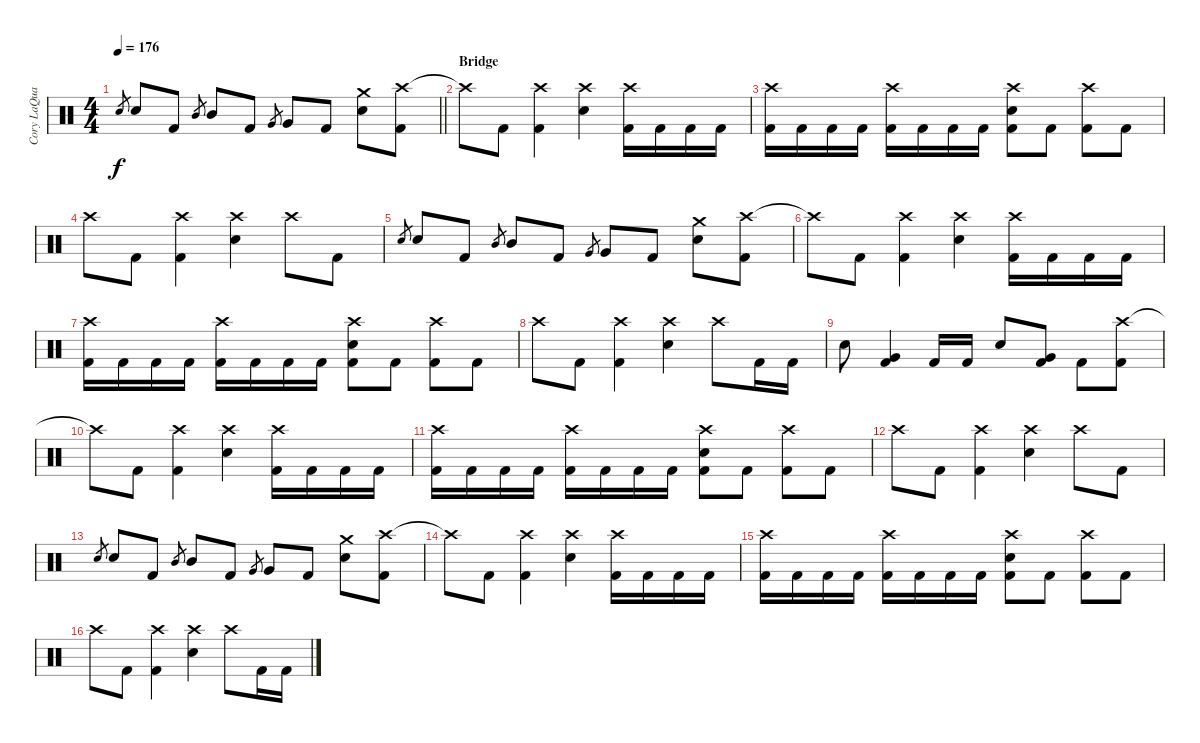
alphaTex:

\track ("Cory LaQuay" "Cory LaQua") {instrument percussion}
\staff {score}
\articulation defaults
\ts (4 4)
\tempo 176
\clef neutral
\barLineRight lightlight
\ks c "Snare (hit) 2".8{gr dy f} "Snare (hit) 2".8 "Kick (hit) 2".8 "Mid Tom (hit)".8{gr} "Mid Tom (hit)".8 "Kick (hit) 2".8 "Very Low Tom (hit)".8{gr} "Very Low Tom (hit)".8 "Kick (hit) 2".8
("Crash medium (hit)" "Snare (hit) 2").8 ("Crash high (hit)" "Kick (hit) 2").8 |
\section ("" "Bridge")
"Crash high (hit)"{t}.8 "Kick (hit) 2".8 ("Crash high (hit)" "Kick (hit) 2").4 ("Crash high (hit)" "Snare (hit) 2").4 ("Crash high (hit)" "Kick (hit) 2").16 "Kick (hit) 2".16 "Kick (hit) 2".16 "Kick (hit) 2".16 |
("Crash high (hit)" "Kick (hit) 2").16 "Kick (hit) 2".16 "Kick (hit) 2".16 "Kick (hit) 2".16 ("Crash high (hit)" "Kick (hit) 2").16 "Kick (hit) 2".16 "Kick (hit) 2".16 "Kick (hit) 2".16 ("Crash high (hit)" "Snare (hit) 2" "Kick (hit) 2").8 "Kick (hit) 2".8 ("Crash high (hit)" "Kick (hit) 2").8 "Kick (hit) 2".8 |
"Crash high (hit)".8 "Kick (hit) 2".8 ("Crash high (hit)" "Kick (hit) 2").4 ("Crash high (hit)" "Snare (hit) 2").4 "Crash high (hit)".8 "Kick (hit) 2".8 |
"Snare (hit) 2".8{gr} "Snare (hit) 2".8 "Kick (hit) 2".8 "Mid Tom (hit)".8{gr} "Mid Tom (hit)".8 "Kick (hit) 2".8 "Very Low Tom (hit)".8{gr} "Very Low Tom (hit)".8 "Kick (hit) 2".8 ("Crash medium (hit)" "Snare (hit) 2").8 ("Crash high (hit)" "Kick (hit) 2").8 |
"Crash high (hit)"{t}.8 "Kick (hit) 2".8 ("Crash high (hit)" "Kick (hit) 2").4 ("Crash high (hit)" "Snare (hit) 2").4 ("Crash high (hit)" "Kick (hit) 2").16 "Kick (hit) 2".16 "Kick (hit) 2".16 "Kick (hit) 2".16 |
("Crash high (hit)" "Kick (hit) 2").16 "Kick (hit) 2".16 "Kick (hit) 2".16 "Kick (hit) 2".16 ("Crash high (hit)" "Kick (hit) 2").16 "Kick (hit) 2".16 "Kick (hit) 2".16 "Kick (hit) 2".16 ("Crash high (hit)" "Snare (hit) 2" "Kick (hit) 2").8 "Kick (hit) 2".8 ("Crash high (hit)" "Kick (hit) 2").8 "Kick (hit) 2".8 |
"Crash high (hit)".8 "Kick (hit) 2".8 ("Crash high (hit)" "Kick (hit) 2").4 ("Crash high (hit)" "Snare (hit) 2").4 "Crash high (hit)".8 "Kick (hit) 2".16 "Kick (hit) 2".16 |
"Snare (hit) 2".8 ("Very Low Tom (hit)" "Kick (hit) 2").4 "Kick (hit) 2".16 "Kick (hit) 2".16 "Snare (hit) 2".8 ("Very Low Tom (hit)" "Kick (hit) 2").8 "Kick (hit) 2".8 ("Crash high (hit)" "Kick (hit) 2").8 |
"Crash high (hit)"{t}.8 "Kick (hit) 2".8 ("Crash high (hit)" "Kick (hit) 2").4 ("Crash high (hit)" "Snare (hit) 2").4 ("Crash high (hit)" "Kick (hit) 2").16 "Kick (hit) 2".16 "Kick (hit) 2".16 "Kick (hit) 2".16 |
("Crash high (hit)" "Kick (hit) 2").16 "Kick (hit) 2".16 "Kick (hit) 2".16 "Kick (hit) 2".16 ("Crash high (hit)" "Kick (hit) 2").16 "Kick (hit) 2".16 "Kick (hit) 2".16 "Kick (hit) 2".16 ("Crash high (hit)" "Snare (hit) 2" "Kick (hit) 2").8 "Kick (hit) 2".8 ("Crash high (hit)" "Kick (hit) 2").8 "Kick (hit) 2".8 |
"Crash high (hit)".8 "Kick (hit) 2".8 ("Crash high (hit)" "Kick (hit) 2").4 ("Crash high (hit)" "Snare (hit) 2").4 "Crash high (hit)".8 "Kick (hit) 2".8 |
"Snare (hit) 2".8{gr} "Snare (hit) 2".8 "Kick (hit) 2".8 "Mid Tom (hit)".8{gr} "Mid Tom (hit)".8 "Kick (hit) 2".8 "Very Low Tom (hit)".8{gr} "Very Low Tom (hit)".8 "Kick (hit) 2".8 ("Crash medium (hit)" "Snare (hit) 2").8 ("Crash high (hit)" "Kick (hit) 2").8 |
"Crash high (hit)"{t}.8 "Kick (hit) 2".8 ("Crash high (hit)" "Kick (hit) 2").4 ("Crash high (hit)" "Snare (hit) 2").4 ("Crash high (hit)" "Kick (hit) 2").16 "Kick (hit) 2".16 "Kick (hit) 2".16 "Kick (hit) 2".16 |
("Crash high (hit)" "Kick (hit) 2").16 "Kick (hit) 2".16 "Kick (hit) 2".16 "Kick (hit) 2".16 ("Crash high (hit)" "Kick (hit) 2").16 "Kick (hit) 2".16 "Kick (hit) 2".16 "Kick (hit) 2".16 ("Crash high (hit)" "Snare (hit) 2" "Kick (hit) 2").8 "Kick (hit) 2".8 ("Crash high (hit)" "Kick (hit) 2").8 "Kick (hit) 2".8 |
"Crash high (hit)".8 "Kick (hit) 2".8 ("Crash high (hit)" "Kick (hit) 2").4 ("Crash high (hit)" "Snare (hit) 2").4 "Crash high (hit)".8 "Kick (hit) 2".16 "Kick (hit) 2".16
